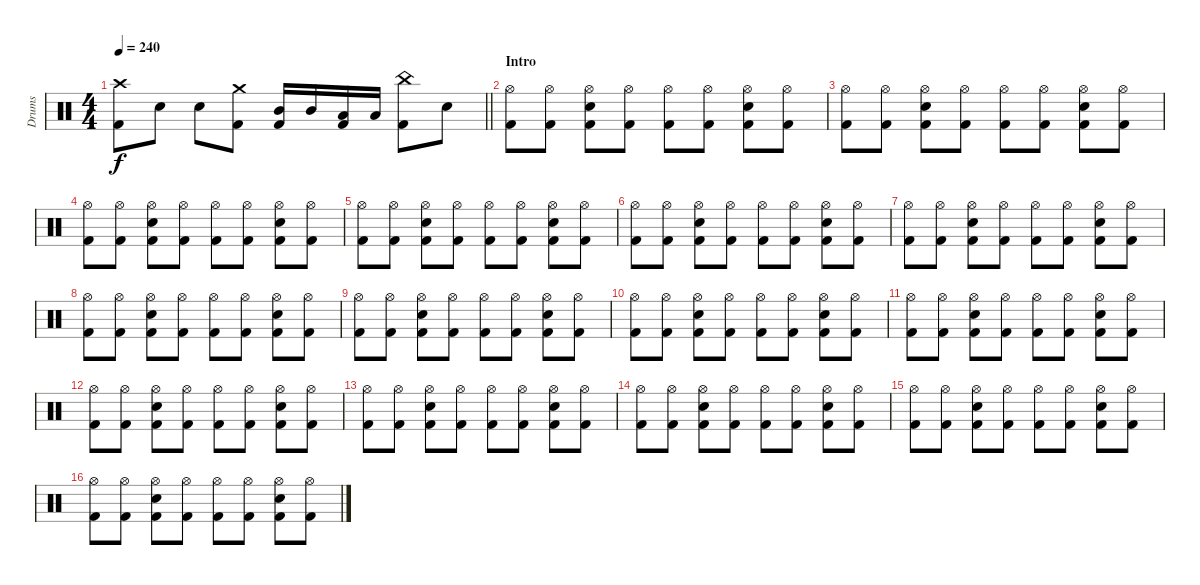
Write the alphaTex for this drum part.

\track ("Drums" "Drums") {instrument percussion}
\staff {score}
\articulation defaults
\ts (4 4)
\tempo 240
\clef neutral
\barLineRight lightlight
\ks c
("Kick (hit) 2" "Crash high (hit)").8{dy f} "Snare (hit) 2".8 "Snare (hit) 2".8 ("Kick (hit) 2" "Crash medium (hit)").8 ("Kick (hit) 2" "Mid Tom (hit)").16 "Mid Tom (hit)".16 ("Kick (hit) 2" "Low Tom (hit)").16 "Low Tom (hit)".16 ("Kick (hit) 2" "China (hit)").8 "Snare (hit) 2".8 |
\section ("" "Intro")
("Kick (hit) 2" "Hi-Hat (open)").8 ("Kick (hit) 2" "Hi-Hat (open)").8 ("Kick (hit) 2" "Snare (hit) 2" "Hi-Hat (open)").8 ("Kick (hit) 2" "Hi-Hat (open)").8 ("Kick (hit) 2" "Hi-Hat (open)").8 ("Kick (hit) 2" "Hi-Hat (open)").8 ("Kick (hit) 2" "Snare (hit) 2" "Hi-Hat (open)").8 ("Kick (hit) 2" "Hi-Hat (open)").8 |
("Kick (hit) 2" "Hi-Hat (open)").8 ("Kick (hit) 2" "Hi-Hat (open)").8 ("Kick (hit) 2" "Snare (hit) 2" "Hi-Hat (open)").8 ("Kick (hit) 2" "Hi-Hat (open)").8 ("Kick (hit) 2" "Hi-Hat (open)").8 ("Kick (hit) 2" "Hi-Hat (open)").8 ("Kick (hit) 2" "Snare (hit) 2" "Hi-Hat (open)").8 ("Kick (hit) 2" "Hi-Hat (open)").8 |
("Kick (hit) 2" "Hi-Hat (open)").8 ("Kick (hit) 2" "Hi-Hat (open)").8 ("Kick (hit) 2" "Snare (hit) 2" "Hi-Hat (open)").8 ("Kick (hit) 2" "Hi-Hat (open)").8 ("Kick (hit) 2" "Hi-Hat (open)").8 ("Kick (hit) 2" "Hi-Hat (open)").8 ("Kick (hit) 2" "Snare (hit) 2" "Hi-Hat (open)").8 ("Kick (hit) 2" "Hi-Hat (open)").8 |
("Kick (hit) 2" "Hi-Hat (open)").8 ("Kick (hit) 2" "Hi-Hat (open)").8 ("Kick (hit) 2" "Snare (hit) 2" "Hi-Hat (open)").8 ("Kick (hit) 2" "Hi-Hat (open)").8 ("Kick (hit) 2" "Hi-Hat (open)").8 ("Kick (hit) 2" "Hi-Hat (open)").8 ("Kick (hit) 2" "Snare (hit) 2" "Hi-Hat (open)").8 ("Kick (hit) 2" "Hi-Hat (open)").8 |
("Kick (hit) 2" "Hi-Hat (open)").8 ("Kick (hit) 2" "Hi-Hat (open)").8 ("Kick (hit) 2" "Snare (hit) 2" "Hi-Hat (open)").8 ("Kick (hit) 2" "Hi-Hat (open)").8 ("Kick (hit) 2" "Hi-Hat (open)").8 ("Kick (hit) 2" "Hi-Hat (open)").8 ("Kick (hit) 2" "Snare (hit) 2" "Hi-Hat (open)").8 ("Kick (hit) 2" "Hi-Hat (open)").8 |
("Kick (hit) 2" "Hi-Hat (open)").8 ("Kick (hit) 2" "Hi-Hat (open)").8 ("Kick (hit) 2" "Snare (hit) 2" "Hi-Hat (open)").8 ("Kick (hit) 2" "Hi-Hat (open)").8 ("Kick (hit) 2" "Hi-Hat (open)").8 ("Kick (hit) 2" "Hi-Hat (open)").8 ("Kick (hit) 2" "Snare (hit) 2" "Hi-Hat (open)").8 ("Kick (hit) 2" "Hi-Hat (open)").8 |
("Kick (hit) 2" "Hi-Hat (open)").8 ("Kick (hit) 2" "Hi-Hat (open)").8 ("Kick (hit) 2" "Snare (hit) 2" "Hi-Hat (open)").8 ("Kick (hit) 2" "Hi-Hat (open)").8 ("Kick (hit) 2" "Hi-Hat (open)").8 ("Kick (hit) 2" "Hi-Hat (open)").8 ("Kick (hit) 2" "Snare (hit) 2" "Hi-Hat (open)").8 ("Kick (hit) 2" "Hi-Hat (open)").8 |
("Kick (hit) 2" "Hi-Hat (open)").8 ("Kick (hit) 2" "Hi-Hat (open)").8 ("Kick (hit) 2" "Snare (hit) 2" "Hi-Hat (open)").8 ("Kick (hit) 2" "Hi-Hat (open)").8 ("Kick (hit) 2" "Hi-Hat (open)").8 ("Kick (hit) 2" "Hi-Hat (open)").8 ("Kick (hit) 2" "Snare (hit) 2" "Hi-Hat (open)").8 ("Kick (hit) 2" "Hi-Hat (open)").8 |
("Kick (hit) 2" "Hi-Hat (open)").8 ("Kick (hit) 2" "Hi-Hat (open)").8 ("Kick (hit) 2" "Snare (hit) 2" "Hi-Hat (open)").8 ("Kick (hit) 2" "Hi-Hat (open)").8 ("Kick (hit) 2" "Hi-Hat (open)").8 ("Kick (hit) 2" "Hi-Hat (open)").8 ("Kick (hit) 2" "Snare (hit) 2" "Hi-Hat (open)").8 ("Kick (hit) 2" "Hi-Hat (open)").8 |
("Kick (hit) 2" "Hi-Hat (open)").8 ("Kick (hit) 2" "Hi-Hat (open)").8 ("Kick (hit) 2" "Snare (hit) 2" "Hi-Hat (open)").8 ("Kick (hit) 2" "Hi-Hat (open)").8 ("Kick (hit) 2" "Hi-Hat (open)").8 ("Kick (hit) 2" "Hi-Hat (open)").8 ("Kick (hit) 2" "Snare (hit) 2" "Hi-Hat (open)").8 ("Kick (hit) 2" "Hi-Hat (open)").8 |
("Kick (hit) 2" "Hi-Hat (open)").8 ("Kick (hit) 2" "Hi-Hat (open)").8 ("Kick (hit) 2" "Snare (hit) 2" "Hi-Hat (open)").8 ("Kick (hit) 2" "Hi-Hat (open)").8 ("Kick (hit) 2" "Hi-Hat (open)").8 ("Kick (hit) 2" "Hi-Hat (open)").8 ("Kick (hit) 2" "Snare (hit) 2" "Hi-Hat (open)").8 ("Kick (hit) 2" "Hi-Hat (open)").8 |
("Kick (hit) 2" "Hi-Hat (open)").8 ("Kick (hit) 2" "Hi-Hat (open)").8 ("Kick (hit) 2" "Snare (hit) 2" "Hi-Hat (open)").8 ("Kick (hit) 2" "Hi-Hat (open)").8 ("Kick (hit) 2" "Hi-Hat (open)").8 ("Kick (hit) 2" "Hi-Hat (open)").8 ("Kick (hit) 2" "Snare (hit) 2" "Hi-Hat (open)").8 ("Kick (hit) 2" "Hi-Hat (open)").8 |
("Kick (hit) 2" "Hi-Hat (open)").8 ("Kick (hit) 2" "Hi-Hat (open)").8 ("Kick (hit) 2" "Snare (hit) 2" "Hi-Hat (open)").8 ("Kick (hit) 2" "Hi-Hat (open)").8 ("Kick (hit) 2" "Hi-Hat (open)").8 ("Kick (hit) 2" "Hi-Hat (open)").8 ("Kick (hit) 2" "Snare (hit) 2" "Hi-Hat (open)").8 ("Kick (hit) 2" "Hi-Hat (open)").8 |
("Kick (hit) 2" "Hi-Hat (open)").8 ("Kick (hit) 2" "Hi-Hat (open)").8 ("Kick (hit) 2" "Snare (hit) 2" "Hi-Hat (open)").8 ("Kick (hit) 2" "Hi-Hat (open)").8 ("Kick (hit) 2" "Hi-Hat (open)").8 ("Kick (hit) 2" "Hi-Hat (open)").8 ("Kick (hit) 2" "Snare (hit) 2" "Hi-Hat (open)").8 ("Kick (hit) 2" "Hi-Hat (open)").8 |
("Kick (hit) 2" "Hi-Hat (open)").8 ("Kick (hit) 2" "Hi-Hat (open)").8 ("Kick (hit) 2" "Snare (hit) 2" "Hi-Hat (open)").8 ("Kick (hit) 2" "Hi-Hat (open)").8 ("Kick (hit) 2" "Hi-Hat (open)").8 ("Kick (hit) 2" "Hi-Hat (open)").8 ("Kick (hit) 2" "Snare (hit) 2" "Hi-Hat (open)").8 ("Kick (hit) 2" "Hi-Hat (open)").8
